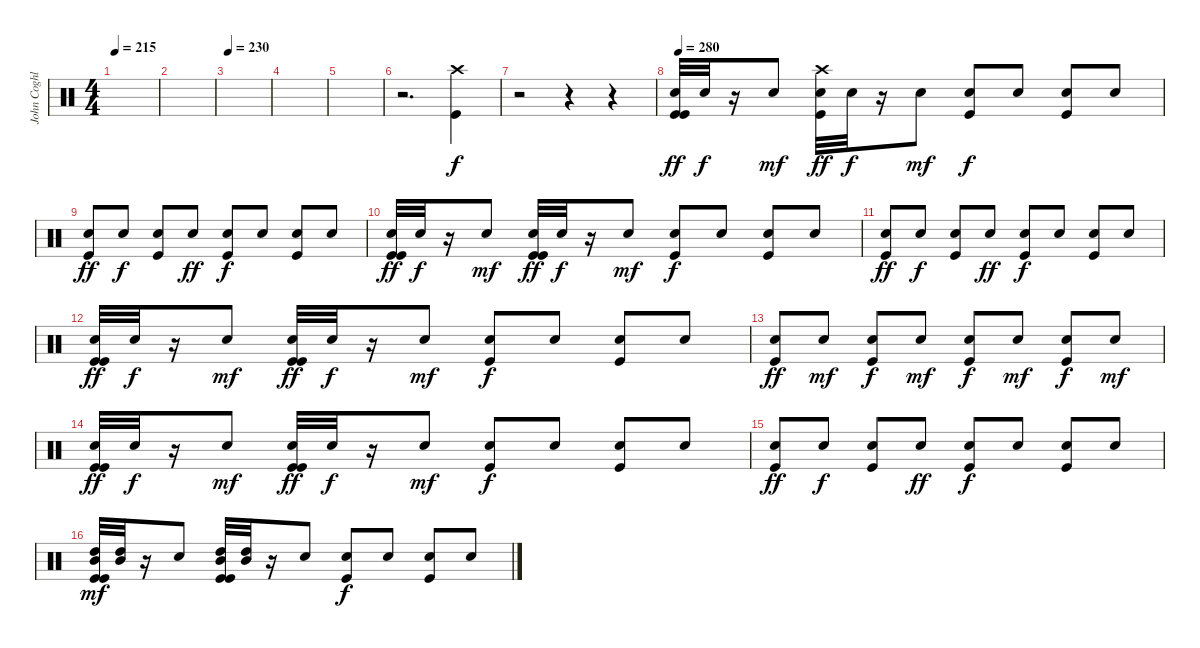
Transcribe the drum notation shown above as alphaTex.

\track ("John Coghlan" "John Coghl") {instrument percussion}
\staff {score}
\articulation defaults
\ts (4 4)
\tempo 215
\clef neutral
\ks c
|
|
\tempo 230
|
|
|
r.2{d} ("Crash high (hit)" "Kick (hit)").4 |
r.2 r.4 r.4 |
\tempo 280
("Kick (hit)" "Electric Snare (hit)" "Kick (hit)").32{dy ff} "Electric Snare (hit)".32{dy f} r.16 "Electric Snare (hit)".8{dy mf} ("Kick (hit)" "Electric Snare (hit)" "Crash high (hit)").32{dy ff} "Electric Snare (hit)".32{dy f} r.16 "Electric Snare (hit)".8{dy mf} ("Electric Snare (hit)" "Kick (hit)").8{dy f} "Electric Snare (hit)".8 ("Electric Snare (hit)" "Kick (hit)").8 "Electric Snare (hit)".8 |
("Electric Snare (hit)" "Kick (hit)").8{dy ff} "Electric Snare (hit)".8{dy f} ("Electric Snare (hit)" "Kick (hit)").8 "Electric Snare (hit)".8{dy ff} ("Electric Snare (hit)" "Kick (hit)").8{dy f} "Electric Snare (hit)".8 ("Electric Snare (hit)" "Kick (hit)").8 "Electric Snare (hit)".8 |
("Kick (hit)" "Electric Snare (hit)" "Kick (hit)").32{dy ff} "Electric Snare (hit)".32{dy f} r.16 "Electric Snare (hit)".8{dy mf} ("Kick (hit)" "Electric Snare (hit)" "Kick (hit)").32{dy ff} "Electric Snare (hit)".32{dy f} r.16 "Electric Snare (hit)".8{dy mf} ("Electric Snare (hit)" "Kick (hit)").8{dy f} "Electric Snare (hit)".8 ("Electric Snare (hit)" "Kick (hit)").8 "Electric Snare (hit)".8 |
("Electric Snare (hit)" "Kick (hit)").8{dy ff} "Electric Snare (hit)".8{dy f} ("Electric Snare (hit)" "Kick (hit)").8 "Electric Snare (hit)".8{dy ff} ("Electric Snare (hit)" "Kick (hit)").8{dy f} "Electric Snare (hit)".8 ("Electric Snare (hit)" "Kick (hit)").8 "Electric Snare (hit)".8 |
("Kick (hit)" "Electric Snare (hit)" "Kick (hit)").32{dy ff} "Electric Snare (hit)".32{dy f} r.16 "Electric Snare (hit)".8{dy mf} ("Kick (hit)" "Electric Snare (hit)" "Kick (hit)").32{dy ff} "Electric Snare (hit)".32{dy f} r.16 "Electric Snare (hit)".8{dy mf} ("Electric Snare (hit)" "Kick (hit)").8{dy f} "Electric Snare (hit)".8 ("Electric Snare (hit)" "Kick (hit)").8 "Electric Snare (hit)".8 |
("Electric Snare (hit)" "Kick (hit)").8{dy ff} "Electric Snare (hit)".8{dy mf} ("Electric Snare (hit)" "Kick (hit)").8{dy f} "Electric Snare (hit)".8{dy mf} ("Electric Snare (hit)" "Kick (hit)").8{dy f} "Electric Snare (hit)".8{dy mf} ("Electric Snare (hit)" "Kick (hit)").8{dy f} "Electric Snare (hit)".8{dy mf} |
("Kick (hit)" "Electric Snare (hit)" "Kick (hit)").32{dy ff} "Electric Snare (hit)".32{dy f} r.16 "Electric Snare (hit)".8{dy mf} ("Kick (hit)" "Electric Snare (hit)" "Kick (hit)").32{dy ff} "Electric Snare (hit)".32{dy f} r.16 "Electric Snare (hit)".8{dy mf} ("Electric Snare (hit)" "Kick (hit)").8{dy f} "Electric Snare (hit)".8 ("Electric Snare (hit)" "Kick (hit)").8 "Electric Snare (hit)".8 |
("Electric Snare (hit)" "Kick (hit)").8{dy ff} "Electric Snare (hit)".8{dy f} ("Electric Snare (hit)" "Kick (hit)").8 "Electric Snare (hit)".8{dy ff} ("Electric Snare (hit)" "Kick (hit)").8{dy f} "Electric Snare (hit)".8 ("Electric Snare (hit)" "Kick (hit)").8 "Electric Snare (hit)".8 |
("Mid Tom (hit)" "Kick (hit)" "High Tom (hit)" "Kick (hit)").32{dy mf} ("Mid Tom (hit)" "High Tom (hit)").32 r.16 "Electric Snare (hit)".8 ("Mid Tom (hit)" "Kick (hit)" "High Tom (hit)" "Kick (hit)").32 ("Mid Tom (hit)" "High Tom (hit)").32 r.16 "Electric Snare (hit)".8 ("Electric Snare (hit)" "Kick (hit)").8{dy f} "Electric Snare (hit)".8 ("Electric Snare (hit)" "Kick (hit)").8 "Electric Snare (hit)".8
